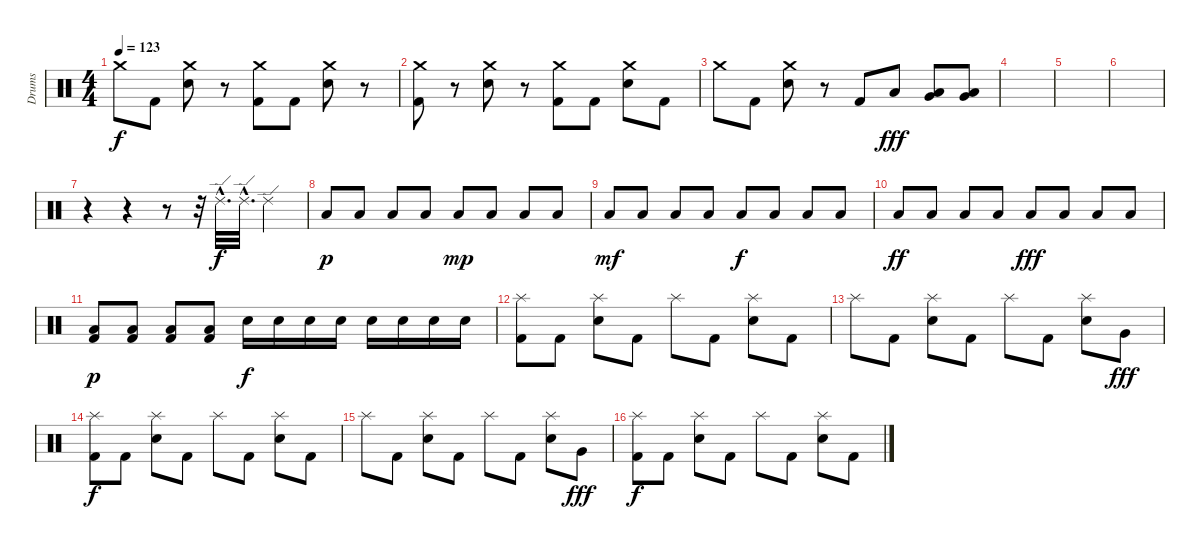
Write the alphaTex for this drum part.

\track ("Drums" "Drums") {instrument percussion}
\staff {score}
\articulation defaults
\ts (4 4)
\tempo 123
\clef neutral
\ks c "Crash medium (hit)".8{dy f} "Kick (hit) 2".8
("Crash medium (hit)" "Electric Snare (hit)").8 r.8 ("Crash medium (hit)" "Kick (hit) 2").8 "Kick (hit) 2".8 ("Crash medium (hit)" "Electric Snare (hit)").8 r.8 |
("Crash medium (hit)" "Kick (hit) 2").8 r.8 ("Crash medium (hit)" "Electric Snare (hit)").8 r.8 ("Crash medium (hit)" "Kick (hit) 2").8 "Kick (hit) 2".8 ("Crash medium (hit)" "Electric Snare (hit)").8 "Kick (hit) 2".8 |
"Crash medium (hit)".8 "Kick (hit) 2".8 ("Crash medium (hit)" "Electric Snare (hit)").8 r.8 "Kick (hit) 2".8 "Low Floor Tom (hit)".8{dy fff} ("Very Low Tom (hit)" "Low Floor Tom (hit)").8 ("Very Low Tom (hit)" "Low Floor Tom (hit)").8 |
|
|
|
r.4 r.4 r.8 r.32 "Ride (edge) 2"{hac}.32{d dy f} "Ride (edge) 2"{hac}.32{d} "Ride (edge) 2".4 |
"Low Floor Tom (hit)".8{dy p} "Low Floor Tom (hit)".8 "Low Floor Tom (hit)".8 "Low Floor Tom (hit)".8 "Low Floor Tom (hit)".8{dy mp} "Low Floor Tom (hit)".8 "Low Floor Tom (hit)".8 "Low Floor Tom (hit)".8 |
"Low Floor Tom (hit)".8{dy mf} "Low Floor Tom (hit)".8 "Low Floor Tom (hit)".8 "Low Floor Tom (hit)".8 "Low Floor Tom (hit)".8{dy f} "Low Floor Tom (hit)".8 "Low Floor Tom (hit)".8 "Low Floor Tom (hit)".8 |
"Low Floor Tom (hit)".8{dy ff} "Low Floor Tom (hit)".8 "Low Floor Tom (hit)".8 "Low Floor Tom (hit)".8 "Low Floor Tom (hit)".8{dy fff} "Low Floor Tom (hit)".8 "Low Floor Tom (hit)".8 "Low Floor Tom (hit)".8 |
("Low Floor Tom (hit)" "Kick (hit) 2").8{dy p} ("Low Floor Tom (hit)" "Kick (hit) 2").8 ("Low Floor Tom (hit)" "Kick (hit) 2").8 ("Low Floor Tom (hit)" "Kick (hit) 2").8 "Electric Snare (hit)".16{dy f} "Electric Snare (hit)".16 "Electric Snare (hit)".16 "Electric Snare (hit)".16 "Electric Snare (hit)".16 "Electric Snare (hit)".16 "Electric Snare (hit)".16 "Electric Snare (hit)".16 |
("Splash (hit)" "Kick (hit) 2").8 "Kick (hit) 2".8 ("Splash (hit)" "Electric Snare (hit)").8 "Kick (hit) 2".8 "Splash (hit)".8 "Kick (hit) 2".8 ("Splash (hit)" "Electric Snare (hit)").8 "Kick (hit) 2".8 |
"Splash (hit)".8 "Kick (hit) 2".8 ("Splash (hit)" "Electric Snare (hit)").8 "Kick (hit) 2".8 "Splash (hit)".8 "Kick (hit) 2".8 ("Splash (hit)" "Electric Snare (hit)").8 "Very Low Tom (hit)".8{dy fff} |
("Splash (hit)" "Kick (hit) 2").8{dy f} "Kick (hit) 2".8 ("Splash (hit)" "Electric Snare (hit)").8 "Kick (hit) 2".8 "Splash (hit)".8 "Kick (hit) 2".8 ("Splash (hit)" "Electric Snare (hit)").8 "Kick (hit) 2".8 |
"Splash (hit)".8 "Kick (hit) 2".8 ("Splash (hit)" "Electric Snare (hit)").8 "Kick (hit) 2".8 "Splash (hit)".8 "Kick (hit) 2".8 ("Splash (hit)" "Electric Snare (hit)").8 "Very Low Tom (hit)".8{dy fff} |
("Splash (hit)" "Kick (hit) 2").8{dy f} "Kick (hit) 2".8 ("Splash (hit)" "Electric Snare (hit)").8 "Kick (hit) 2".8 "Splash (hit)".8 "Kick (hit) 2".8 ("Splash (hit)" "Electric Snare (hit)").8 "Kick (hit) 2".8
